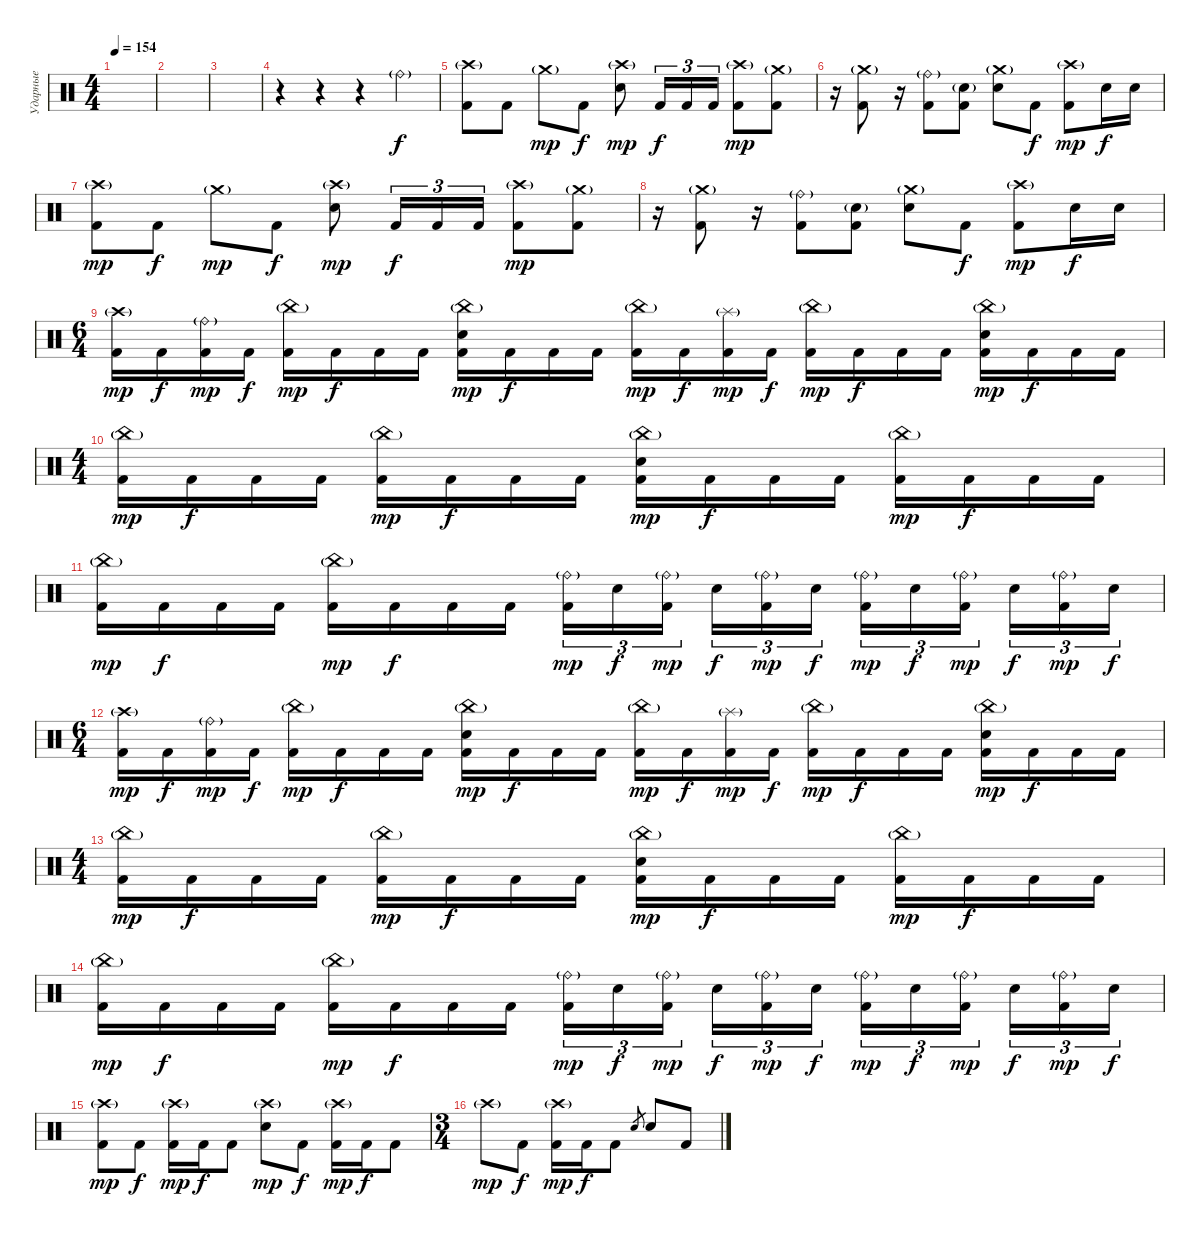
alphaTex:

\track ("Ударные" "Ударные") {instrument percussion}
\staff {score}
\articulation defaults
\ts (4 4)
\tempo 154
\clef neutral
\ks c
|
|
|
r.4 r.4 r.4 "Ride (bell)"{g}.4 |
("Crash high (hit)"{g} "Kick (hit) 2").8 "Kick (hit) 2".8{dy f} "Crash medium (hit)"{g}.8{dy mp} "Kick (hit) 2".8{dy f} ("Crash high (hit)"{g} "Electric Snare (hit)").8{dy mp} "Kick (hit) 2".16{tu (3 2) dy f} "Kick (hit) 2".16{tu (3 2)} "Kick (hit) 2".16{tu (3 2)} ("Crash high (hit)"{g} "Kick (hit) 2").8{dy mp} ("Crash medium (hit)"{g} "Kick (hit) 2").8 |
r.16 ("Crash medium (hit)"{g} "Kick (hit) 2").8 r.16 ("Ride (bell)"{g} "Kick (hit) 2").8 ("Electric Snare (hit)"{g} "Kick (hit) 2").8 ("Crash medium (hit)"{g} "Electric Snare (hit)").8 "Kick (hit) 2".8{dy f} ("Crash high (hit)"{g} "Kick (hit) 2").8{dy mp} "Electric Snare (hit)".16{dy f} "Electric Snare (hit)".16 |
("Crash high (hit)"{g} "Kick (hit) 2").8{dy mp} "Kick (hit) 2".8{dy f} "Crash medium (hit)"{g}.8{dy mp} "Kick (hit) 2".8{dy f} ("Crash high (hit)"{g} "Electric Snare (hit)").8{dy mp} "Kick (hit) 2".16{tu (3 2) dy f} "Kick (hit) 2".16{tu (3 2)} "Kick (hit) 2".16{tu (3 2)} ("Crash high (hit)"{g} "Kick (hit) 2").8{dy mp} ("Crash medium (hit)"{g} "Kick (hit) 2").8 |
r.16 ("Crash medium (hit)"{g} "Kick (hit) 2").8 r.16 ("Ride (bell)"{g} "Kick (hit) 2").8 ("Electric Snare (hit)"{g} "Kick (hit) 2").8 ("Crash medium (hit)"{g} "Electric Snare (hit)").8 "Kick (hit) 2".8{dy f} ("Crash high (hit)"{g} "Kick (hit) 2").8{dy mp} "Electric Snare (hit)".16{dy f} "Electric Snare (hit)".16 |
\ts (6 4)
("Crash high (hit)"{g} "Kick (hit) 2").16{dy mp} "Kick (hit) 2".16{dy f} ("Ride (bell)"{g} "Kick (hit) 2").16{dy mp} "Kick (hit) 2".16{dy f} ("China (hit)"{g} "Kick (hit) 2").16{dy mp} "Kick (hit) 2".16{dy f} "Kick (hit) 2".16 "Kick (hit) 2".16 ("China (hit)"{g} "Electric Snare (hit)" "Kick (hit) 2").16{dy mp} "Kick (hit) 2".16{dy f} "Kick (hit) 2".16 "Kick (hit) 2".16 ("China (hit)"{g} "Kick (hit) 2").16{dy mp} "Kick (hit) 2".16{dy f} ("Splash (hit)"{g} "Kick (hit) 2").16{dy mp} "Kick (hit) 2".16{dy f} ("China (hit)"{g} "Kick (hit) 2").16{dy mp} "Kick (hit) 2".16{dy f} "Kick (hit) 2".16 "Kick (hit) 2".16 ("China (hit)"{g} "Electric Snare (hit)" "Kick (hit) 2").16{dy mp} "Kick (hit) 2".16{dy f} "Kick (hit) 2".16 "Kick (hit) 2".16 |
\ts (4 4)
("China (hit)"{g} "Kick (hit) 2").16{dy mp} "Kick (hit) 2".16{dy f} "Kick (hit) 2".16 "Kick (hit) 2".16 ("China (hit)"{g} "Kick (hit) 2").16{dy mp} "Kick (hit) 2".16{dy f} "Kick (hit) 2".16 "Kick (hit) 2".16 ("China (hit)"{g} "Electric Snare (hit)" "Kick (hit) 2").16{dy mp} "Kick (hit) 2".16{dy f} "Kick (hit) 2".16 "Kick (hit) 2".16 ("China (hit)"{g} "Kick (hit) 2").16{dy mp} "Kick (hit) 2".16{dy f} "Kick (hit) 2".16 "Kick (hit) 2".16 |
("China (hit)"{g} "Kick (hit) 2").16{dy mp} "Kick (hit) 2".16{dy f} "Kick (hit) 2".16 "Kick (hit) 2".16 ("China (hit)"{g} "Kick (hit) 2").16{dy mp} "Kick (hit) 2".16{dy f} "Kick (hit) 2".16 "Kick (hit) 2".16 ("Ride (bell)"{g} "Kick (hit) 2").16{tu (3 2) dy mp} "Electric Snare (hit)".16{tu (3 2) dy f} ("Ride (bell)"{g} "Kick (hit) 2").16{tu (3 2) dy mp} "Electric Snare (hit)".16{tu (3 2) dy f} ("Ride (bell)"{g} "Kick (hit) 2").16{tu (3 2) dy mp} "Electric Snare (hit)".16{tu (3 2) dy f} ("Ride (bell)"{g} "Kick (hit) 2").16{tu (3 2) dy mp} "Electric Snare (hit)".16{tu (3 2) dy f} ("Ride (bell)"{g} "Kick (hit) 2").16{tu (3 2) dy mp} "Electric Snare (hit)".16{tu (3 2) dy f} ("Ride (bell)"{g} "Kick (hit) 2").16{tu (3 2) dy mp} "Electric Snare (hit)".16{tu (3 2) dy f} |
\ts (6 4)
("Crash high (hit)"{g} "Kick (hit) 2").16{dy mp} "Kick (hit) 2".16{dy f} ("Ride (bell)"{g} "Kick (hit) 2").16{dy mp} "Kick (hit) 2".16{dy f} ("China (hit)"{g} "Kick (hit) 2").16{dy mp} "Kick (hit) 2".16{dy f} "Kick (hit) 2".16 "Kick (hit) 2".16 ("China (hit)"{g} "Electric Snare (hit)" "Kick (hit) 2").16{dy mp} "Kick (hit) 2".16{dy f} "Kick (hit) 2".16 "Kick (hit) 2".16 ("China (hit)"{g} "Kick (hit) 2").16{dy mp} "Kick (hit) 2".16{dy f} ("Splash (hit)"{g} "Kick (hit) 2").16{dy mp} "Kick (hit) 2".16{dy f} ("China (hit)"{g} "Kick (hit) 2").16{dy mp} "Kick (hit) 2".16{dy f} "Kick (hit) 2".16 "Kick (hit) 2".16 ("China (hit)"{g} "Electric Snare (hit)" "Kick (hit) 2").16{dy mp} "Kick (hit) 2".16{dy f} "Kick (hit) 2".16 "Kick (hit) 2".16 |
\ts (4 4)
("China (hit)"{g} "Kick (hit) 2").16{dy mp} "Kick (hit) 2".16{dy f} "Kick (hit) 2".16 "Kick (hit) 2".16 ("China (hit)"{g} "Kick (hit) 2").16{dy mp} "Kick (hit) 2".16{dy f} "Kick (hit) 2".16 "Kick (hit) 2".16 ("China (hit)"{g} "Electric Snare (hit)" "Kick (hit) 2").16{dy mp} "Kick (hit) 2".16{dy f} "Kick (hit) 2".16 "Kick (hit) 2".16 ("China (hit)"{g} "Kick (hit) 2").16{dy mp} "Kick (hit) 2".16{dy f} "Kick (hit) 2".16 "Kick (hit) 2".16 |
("China (hit)"{g} "Kick (hit) 2").16{dy mp} "Kick (hit) 2".16{dy f} "Kick (hit) 2".16 "Kick (hit) 2".16 ("China (hit)"{g} "Kick (hit) 2").16{dy mp} "Kick (hit) 2".16{dy f} "Kick (hit) 2".16 "Kick (hit) 2".16 ("Ride (bell)"{g} "Kick (hit) 2").16{tu (3 2) dy mp} "Electric Snare (hit)".16{tu (3 2) dy f} ("Ride (bell)"{g} "Kick (hit) 2").16{tu (3 2) dy mp} "Electric Snare (hit)".16{tu (3 2) dy f} ("Ride (bell)"{g} "Kick (hit) 2").16{tu (3 2) dy mp} "Electric Snare (hit)".16{tu (3 2) dy f} ("Ride (bell)"{g} "Kick (hit) 2").16{tu (3 2) dy mp} "Electric Snare (hit)".16{tu (3 2) dy f} ("Ride (bell)"{g} "Kick (hit) 2").16{tu (3 2) dy mp} "Electric Snare (hit)".16{tu (3 2) dy f} ("Ride (bell)"{g} "Kick (hit) 2").16{tu (3 2) dy mp} "Electric Snare (hit)".16{tu (3 2) dy f} |
("Crash high (hit)"{g} "Kick (hit) 2").8{dy mp} "Kick (hit) 2".8{dy f} ("Crash high (hit)"{g} "Kick (hit) 2").16{dy mp} "Kick (hit) 2".16{dy f} "Kick (hit) 2".8 ("Crash high (hit)"{g} "Electric Snare (hit)").8{dy mp} "Kick (hit) 2".8{dy f} ("Crash high (hit)"{g} "Kick (hit) 2").16{dy mp} "Kick (hit) 2".16{dy f} "Kick (hit) 2".8 |
\ts (3 4)
"Crash high (hit)"{g}.8{dy mp} "Kick (hit) 2".8{dy f} ("Crash high (hit)"{g} "Kick (hit) 2").16{dy mp} "Kick (hit) 2".16{dy f} "Kick (hit) 2".8 "Electric Snare (hit)".8{gr} "Electric Snare (hit)".8 "Kick (hit) 2".8
